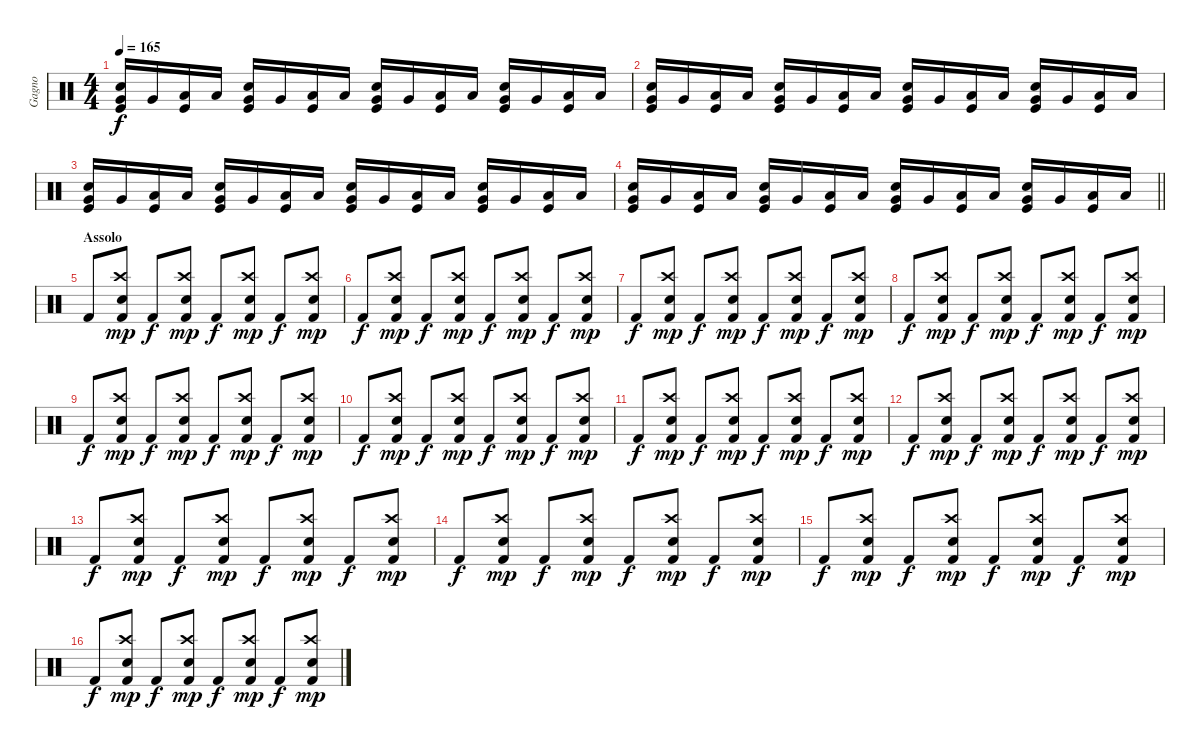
\track ("Gagno" "Gagno") {instrument percussion}
\staff {score}
\articulation defaults
\ts (4 4)
\tempo 165
\clef neutral
\ks c
("Snare (hit) 2" "Very Low Tom (hit)" "Kick (hit)").16{dy f} "Very Low Tom (hit)".16 ("Low Floor Tom (hit)" "Kick (hit)").16 "Low Floor Tom (hit)".16 ("Snare (hit) 2" "Very Low Tom (hit)" "Kick (hit)").16 "Very Low Tom (hit)".16 ("Low Floor Tom (hit)" "Kick (hit)").16 "Low Floor Tom (hit)".16 ("Snare (hit) 2" "Very Low Tom (hit)" "Kick (hit)").16 "Very Low Tom (hit)".16 ("Low Floor Tom (hit)" "Kick (hit)").16 "Low Floor Tom (hit)".16 ("Snare (hit) 2" "Very Low Tom (hit)" "Kick (hit)").16 "Very Low Tom (hit)".16 ("Low Floor Tom (hit)" "Kick (hit)").16 "Low Floor Tom (hit)".16 |
("Snare (hit) 2" "Very Low Tom (hit)" "Kick (hit)").16 "Very Low Tom (hit)".16 ("Low Floor Tom (hit)" "Kick (hit)").16 "Low Floor Tom (hit)".16 ("Snare (hit) 2" "Very Low Tom (hit)" "Kick (hit)").16 "Very Low Tom (hit)".16 ("Low Floor Tom (hit)" "Kick (hit)").16 "Low Floor Tom (hit)".16 ("Snare (hit) 2" "Very Low Tom (hit)" "Kick (hit)").16 "Very Low Tom (hit)".16 ("Low Floor Tom (hit)" "Kick (hit)").16 "Low Floor Tom (hit)".16 ("Snare (hit) 2" "Very Low Tom (hit)" "Kick (hit)").16 "Very Low Tom (hit)".16 ("Low Floor Tom (hit)" "Kick (hit)").16 "Low Floor Tom (hit)".16 |
("Snare (hit) 2" "Very Low Tom (hit)" "Kick (hit)").16 "Very Low Tom (hit)".16 ("Low Floor Tom (hit)" "Kick (hit)").16 "Low Floor Tom (hit)".16 ("Snare (hit) 2" "Very Low Tom (hit)" "Kick (hit)").16 "Very Low Tom (hit)".16 ("Low Floor Tom (hit)" "Kick (hit)").16 "Low Floor Tom (hit)".16 ("Snare (hit) 2" "Very Low Tom (hit)" "Kick (hit)").16 "Very Low Tom (hit)".16 ("Low Floor Tom (hit)" "Kick (hit)").16 "Low Floor Tom (hit)".16 ("Snare (hit) 2" "Very Low Tom (hit)" "Kick (hit)").16 "Very Low Tom (hit)".16 ("Low Floor Tom (hit)" "Kick (hit)").16 "Low Floor Tom (hit)".16 |
\barLineRight lightlight
("Snare (hit) 2" "Very Low Tom (hit)" "Kick (hit)").16 "Very Low Tom (hit)".16 ("Low Floor Tom (hit)" "Kick (hit)").16 "Low Floor Tom (hit)".16 ("Snare (hit) 2" "Very Low Tom (hit)" "Kick (hit)").16 "Very Low Tom (hit)".16 ("Low Floor Tom (hit)" "Kick (hit)").16 "Low Floor Tom (hit)".16 ("Snare (hit) 2" "Very Low Tom (hit)" "Kick (hit)").16 "Very Low Tom (hit)".16 ("Low Floor Tom (hit)" "Kick (hit)").16 "Low Floor Tom (hit)".16 ("Snare (hit) 2" "Very Low Tom (hit)" "Kick (hit)").16 "Very Low Tom (hit)".16 ("Low Floor Tom (hit)" "Kick (hit)").16 "Low Floor Tom (hit)".16 |
\section ("" "Assolo")
"Kick (hit) 2".8 ("Crash high (hit)" "Electric Snare (hit)" "Kick (hit) 2").8{dy mp} "Kick (hit) 2".8{dy f} ("Crash high (hit)" "Electric Snare (hit)" "Kick (hit) 2").8{dy mp} "Kick (hit) 2".8{dy f} ("Crash high (hit)" "Electric Snare (hit)" "Kick (hit) 2").8{dy mp} "Kick (hit) 2".8{dy f} ("Crash high (hit)" "Electric Snare (hit)" "Kick (hit) 2").8{dy mp} |
"Kick (hit) 2".8{dy f} ("Crash high (hit)" "Electric Snare (hit)" "Kick (hit) 2").8{dy mp} "Kick (hit) 2".8{dy f} ("Crash high (hit)" "Electric Snare (hit)" "Kick (hit) 2").8{dy mp} "Kick (hit) 2".8{dy f} ("Crash high (hit)" "Electric Snare (hit)" "Kick (hit) 2").8{dy mp} "Kick (hit) 2".8{dy f} ("Crash high (hit)" "Electric Snare (hit)" "Kick (hit) 2").8{dy mp} |
"Kick (hit) 2".8{dy f} ("Crash high (hit)" "Electric Snare (hit)" "Kick (hit) 2").8{dy mp} "Kick (hit) 2".8{dy f} ("Crash high (hit)" "Electric Snare (hit)" "Kick (hit) 2").8{dy mp} "Kick (hit) 2".8{dy f} ("Crash high (hit)" "Electric Snare (hit)" "Kick (hit) 2").8{dy mp} "Kick (hit) 2".8{dy f} ("Crash high (hit)" "Electric Snare (hit)" "Kick (hit) 2").8{dy mp} |
"Kick (hit) 2".8{dy f} ("Crash high (hit)" "Electric Snare (hit)" "Kick (hit) 2").8{dy mp} "Kick (hit) 2".8{dy f} ("Crash high (hit)" "Electric Snare (hit)" "Kick (hit) 2").8{dy mp} "Kick (hit) 2".8{dy f} ("Crash high (hit)" "Electric Snare (hit)" "Kick (hit) 2").8{dy mp} "Kick (hit) 2".8{dy f} ("Crash high (hit)" "Electric Snare (hit)" "Kick (hit) 2").8{dy mp} |
"Kick (hit) 2".8{dy f} ("Crash high (hit)" "Electric Snare (hit)" "Kick (hit) 2").8{dy mp} "Kick (hit) 2".8{dy f} ("Crash high (hit)" "Electric Snare (hit)" "Kick (hit) 2").8{dy mp} "Kick (hit) 2".8{dy f} ("Crash high (hit)" "Electric Snare (hit)" "Kick (hit) 2").8{dy mp} "Kick (hit) 2".8{dy f} ("Crash high (hit)" "Electric Snare (hit)" "Kick (hit) 2").8{dy mp} |
"Kick (hit) 2".8{dy f} ("Crash high (hit)" "Electric Snare (hit)" "Kick (hit) 2").8{dy mp} "Kick (hit) 2".8{dy f} ("Crash high (hit)" "Electric Snare (hit)" "Kick (hit) 2").8{dy mp} "Kick (hit) 2".8{dy f} ("Crash high (hit)" "Electric Snare (hit)" "Kick (hit) 2").8{dy mp} "Kick (hit) 2".8{dy f} ("Crash high (hit)" "Electric Snare (hit)" "Kick (hit) 2").8{dy mp} |
"Kick (hit) 2".8{dy f} ("Crash high (hit)" "Electric Snare (hit)" "Kick (hit) 2").8{dy mp} "Kick (hit) 2".8{dy f} ("Crash high (hit)" "Electric Snare (hit)" "Kick (hit) 2").8{dy mp} "Kick (hit) 2".8{dy f} ("Crash high (hit)" "Electric Snare (hit)" "Kick (hit) 2").8{dy mp} "Kick (hit) 2".8{dy f} ("Crash high (hit)" "Electric Snare (hit)" "Kick (hit) 2").8{dy mp} |
"Kick (hit) 2".8{dy f} ("Crash high (hit)" "Electric Snare (hit)" "Kick (hit) 2").8{dy mp} "Kick (hit) 2".8{dy f} ("Crash high (hit)" "Electric Snare (hit)" "Kick (hit) 2").8{dy mp} "Kick (hit) 2".8{dy f} ("Crash high (hit)" "Electric Snare (hit)" "Kick (hit) 2").8{dy mp} "Kick (hit) 2".8{dy f} ("Crash high (hit)" "Electric Snare (hit)" "Kick (hit) 2").8{dy mp} |
"Kick (hit) 2".8{dy f} ("Crash high (hit)" "Electric Snare (hit)" "Kick (hit) 2").8{dy mp} "Kick (hit) 2".8{dy f} ("Crash high (hit)" "Electric Snare (hit)" "Kick (hit) 2").8{dy mp} "Kick (hit) 2".8{dy f} ("Crash high (hit)" "Electric Snare (hit)" "Kick (hit) 2").8{dy mp} "Kick (hit) 2".8{dy f} ("Crash high (hit)" "Electric Snare (hit)" "Kick (hit) 2").8{dy mp} |
"Kick (hit) 2".8{dy f} ("Crash high (hit)" "Electric Snare (hit)" "Kick (hit) 2").8{dy mp} "Kick (hit) 2".8{dy f} ("Crash high (hit)" "Electric Snare (hit)" "Kick (hit) 2").8{dy mp} "Kick (hit) 2".8{dy f} ("Crash high (hit)" "Electric Snare (hit)" "Kick (hit) 2").8{dy mp} "Kick (hit) 2".8{dy f} ("Crash high (hit)" "Electric Snare (hit)" "Kick (hit) 2").8{dy mp} |
"Kick (hit) 2".8{dy f} ("Crash high (hit)" "Electric Snare (hit)" "Kick (hit) 2").8{dy mp} "Kick (hit) 2".8{dy f} ("Crash high (hit)" "Electric Snare (hit)" "Kick (hit) 2").8{dy mp} "Kick (hit) 2".8{dy f} ("Crash high (hit)" "Electric Snare (hit)" "Kick (hit) 2").8{dy mp} "Kick (hit) 2".8{dy f} ("Crash high (hit)" "Electric Snare (hit)" "Kick (hit) 2").8{dy mp} |
"Kick (hit) 2".8{dy f} ("Crash high (hit)" "Electric Snare (hit)" "Kick (hit) 2").8{dy mp} "Kick (hit) 2".8{dy f} ("Crash high (hit)" "Electric Snare (hit)" "Kick (hit) 2").8{dy mp} "Kick (hit) 2".8{dy f} ("Crash high (hit)" "Electric Snare (hit)" "Kick (hit) 2").8{dy mp} "Kick (hit) 2".8{dy f} ("Crash high (hit)" "Electric Snare (hit)" "Kick (hit) 2").8{dy mp}
